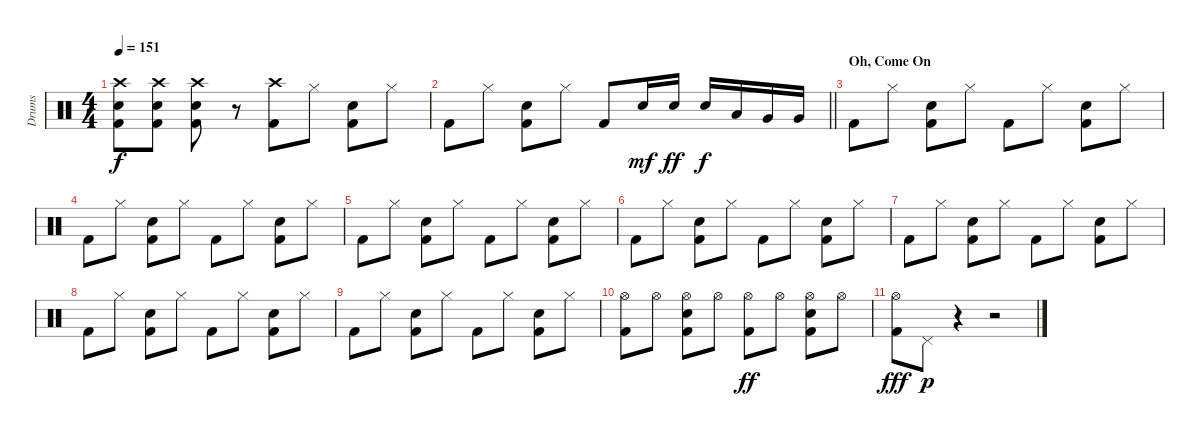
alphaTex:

\track ("Drums" "Drums") {instrument percussion}
\staff {score}
\articulation defaults
\ts (4 4)
\tempo 151
\clef neutral
\ks c
("Crash high (hit)" "Electric Snare (hit)" "Kick (hit) 2").8{dy f} ("Crash high (hit)" "Electric Snare (hit)" "Kick (hit) 2").8 ("Crash high (hit)" "Electric Snare (hit)" "Kick (hit) 2").8 r.8 ("Crash high (hit)" "Kick (hit) 2").8 "Hi-Hat (closed)".8 ("Electric Snare (hit)" "Kick (hit) 2").8 "Hi-Hat (closed)".8 |
\barLineRight lightlight "Kick (hit) 2".8 "Hi-Hat (closed)".8
("Electric Snare (hit)" "Kick (hit) 2").8 "Hi-Hat (closed)".8 "Kick (hit) 2".8 "Electric Snare (hit)".16{dy mf} "Electric Snare (hit)".16{dy ff} "Electric Snare (hit)".16{dy f} "Low Tom (hit)".16 "Very Low Tom (hit)".16 "Very Low Tom (hit)".16 |
\section ("" "Oh, Come On")
"Kick (hit) 2".8 "Hi-Hat (closed)".8 ("Electric Snare (hit)" "Kick (hit) 2").8 "Hi-Hat (closed)".8 "Kick (hit) 2".8 "Hi-Hat (closed)".8 ("Electric Snare (hit)" "Kick (hit) 2").8 "Hi-Hat (closed)".8 |
"Kick (hit) 2".8 "Hi-Hat (closed)".8 ("Electric Snare (hit)" "Kick (hit) 2").8 "Hi-Hat (closed)".8 "Kick (hit) 2".8 "Hi-Hat (closed)".8 ("Electric Snare (hit)" "Kick (hit) 2").8 "Hi-Hat (closed)".8 |
"Kick (hit) 2".8 "Hi-Hat (closed)".8 ("Electric Snare (hit)" "Kick (hit) 2").8 "Hi-Hat (closed)".8 "Kick (hit) 2".8 "Hi-Hat (closed)".8 ("Electric Snare (hit)" "Kick (hit) 2").8 "Hi-Hat (closed)".8 |
"Kick (hit) 2".8 "Hi-Hat (closed)".8 ("Electric Snare (hit)" "Kick (hit) 2").8 "Hi-Hat (closed)".8 "Kick (hit) 2".8 "Hi-Hat (closed)".8 ("Electric Snare (hit)" "Kick (hit) 2").8 "Hi-Hat (closed)".8 |
"Kick (hit) 2".8 "Hi-Hat (closed)".8 ("Electric Snare (hit)" "Kick (hit) 2").8 "Hi-Hat (closed)".8 "Kick (hit) 2".8 "Hi-Hat (closed)".8 ("Electric Snare (hit)" "Kick (hit) 2").8 "Hi-Hat (closed)".8 |
"Kick (hit) 2".8 "Hi-Hat (closed)".8 ("Electric Snare (hit)" "Kick (hit) 2").8 "Hi-Hat (closed)".8 "Kick (hit) 2".8 "Hi-Hat (closed)".8 ("Electric Snare (hit)" "Kick (hit) 2").8 "Hi-Hat (closed)".8 |
"Kick (hit) 2".8 "Hi-Hat (closed)".8 ("Electric Snare (hit)" "Kick (hit) 2").8 "Hi-Hat (closed)".8 "Kick (hit) 2".8 "Hi-Hat (closed)".8 ("Electric Snare (hit)" "Kick (hit) 2").8 "Hi-Hat (closed)".8 |
("Hi-Hat (open)" "Kick (hit) 2").8 "Hi-Hat (open)".8 ("Hi-Hat (open)" "Electric Snare (hit)" "Kick (hit) 2").8 "Hi-Hat (open)".8 ("Hi-Hat (open)" "Kick (hit) 2").8{dy ff} "Hi-Hat (open)".8 ("Hi-Hat (open)" "Electric Snare (hit)" "Kick (hit) 2").8 "Hi-Hat (open)".8 |
("Hi-Hat (open)" "Kick (hit) 2").8{dy fff} "Pedal Hi-Hat (hit)".8{dy p} r.4 r.2
